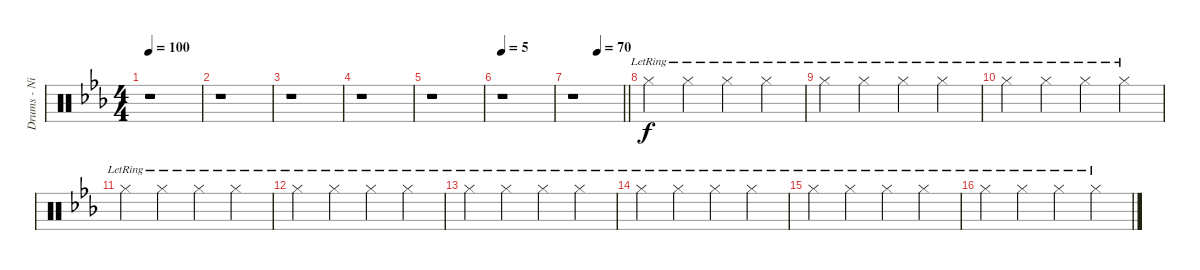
\track ("Drums - Nigel Olsen" "Drums - Ni") {instrument percussion}
\staff {score}
\articulation defaults
\ts (4 4)
\tempo 100
\clef neutral
\ks cminor
r.1{dy f} |
r.1 |
r.1 |
r.1 |
r.1 |
\tempo 5
r.1 |
\tempo (70 0.5)
\barLineRight lightlight
r.1 |
"Hi-Hat (closed)"{lr}.4 "Hi-Hat (closed)"{lr}.4 "Hi-Hat (closed)"{lr}.4 "Hi-Hat (closed)"{lr}.4 |
"Hi-Hat (closed)"{lr}.4 "Hi-Hat (closed)"{lr}.4 "Hi-Hat (closed)"{lr}.4 "Hi-Hat (closed)"{lr}.4 |
"Hi-Hat (closed)"{lr}.4 "Hi-Hat (closed)"{lr}.4 "Hi-Hat (closed)"{lr}.4 "Hi-Hat (closed)"{lr}.4 |
"Hi-Hat (closed)"{lr}.4 "Hi-Hat (closed)"{lr}.4 "Hi-Hat (closed)"{lr}.4 "Hi-Hat (closed)"{lr}.4 |
"Hi-Hat (closed)"{lr}.4 "Hi-Hat (closed)"{lr}.4 "Hi-Hat (closed)"{lr}.4 "Hi-Hat (closed)"{lr}.4 |
"Hi-Hat (closed)"{lr}.4 "Hi-Hat (closed)"{lr}.4 "Hi-Hat (closed)"{lr}.4 "Hi-Hat (closed)"{lr}.4 |
"Hi-Hat (closed)"{lr}.4 "Hi-Hat (closed)"{lr}.4 "Hi-Hat (closed)"{lr}.4 "Hi-Hat (closed)"{lr}.4 |
"Hi-Hat (closed)"{lr}.4 "Hi-Hat (closed)"{lr}.4 "Hi-Hat (closed)"{lr}.4 "Hi-Hat (closed)"{lr}.4 |
"Hi-Hat (closed)"{lr}.4 "Hi-Hat (closed)"{lr}.4 "Hi-Hat (closed)"{lr}.4 "Hi-Hat (closed)"{lr}.4
